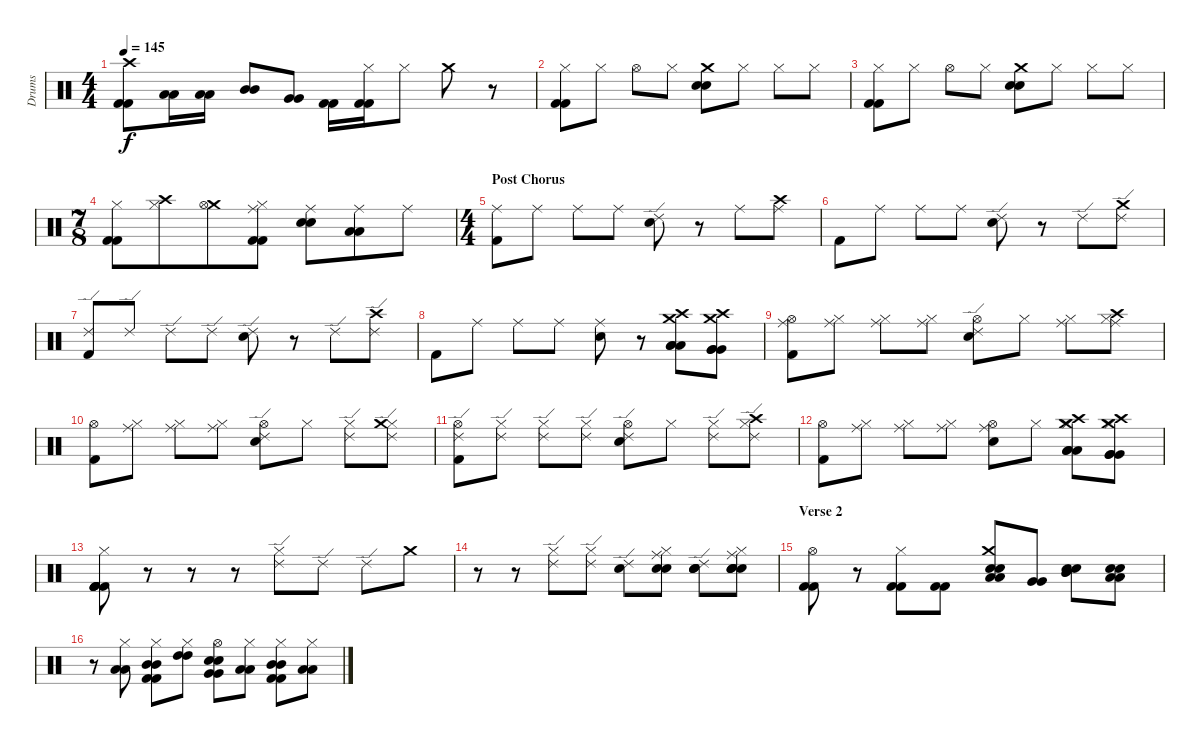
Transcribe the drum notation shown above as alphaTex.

\track ("Drums" "Drums") {instrument percussion}
\staff {score}
\articulation defaults
\ts (4 4)
\tempo 145
\clef neutral
\ks c
("Crash high (hit)" "Kick (hit) 2" "Kick (hit) 2").8{dy f} ("Low Tom (hit)" "Low Tom (hit)").16 ("Low Tom (hit)" "Low Tom (hit)").16 ("Mid Tom (hit)" "Mid Tom (hit)").8 ("Very Low Tom (hit)" "Very Low Tom (hit)").8 ("Kick (hit) 2" "Kick (hit) 2").16 ("Hi-Hat (closed)" "Kick (hit) 2" "Kick (hit) 2").16 "Hi-Hat (closed)".8 "Crash medium (hit)".8 r.8 |
("Hi-Hat (closed)" "Kick (hit) 2" "Kick (hit) 2").8 "Hi-Hat (closed)".8 "Hi-Hat (open)".8 "Hi-Hat (closed)".8 ("Crash medium (hit)" "Snare (hit) 2" "Snare (hit) 2").8 "Hi-Hat (closed)".8 "Hi-Hat (closed)".8 "Hi-Hat (closed)".8 |
("Hi-Hat (closed)" "Kick (hit) 2" "Kick (hit) 2").8 "Hi-Hat (closed)".8 "Hi-Hat (open)".8 "Hi-Hat (closed)".8 ("Crash medium (hit)" "Snare (hit) 2" "Snare (hit) 2").8 "Hi-Hat (closed)".8 "Hi-Hat (closed)".8 "Hi-Hat (closed)".8 |
\ts (7 8)
("Hi-Hat (closed)" "Kick (hit) 2" "Kick (hit) 2").8 ("Crash high (hit)" "Hi-Hat (closed)").8 ("Crash medium (hit)" "Hi-Hat (open)").8 ("Ride (middle)" "Hi-Hat (closed)" "Kick (hit) 2" "Kick (hit) 2").8 ("Ride (middle)" "Snare (hit) 2" "Snare (hit) 2").8 ("Ride (middle)" "Low Tom (hit)" "Low Tom (hit)").8 "Ride (middle)".8 |
\ts (4 4)
\section ("" "Post Chorus")
("Ride (middle)" "Kick (hit) 2").8 "Ride (middle)".8 "Ride (middle)".8 "Ride (middle)".8 ("Ride (edge) 2" "Snare (hit) 2").8 r.8 "Ride (middle)".8 ("Ride (middle)" "Crash high (hit)").8 |
"Kick (hit) 2".8 "Ride (middle)".8 "Ride (middle)".8 "Ride (middle)".8 ("Ride (edge) 2" "Snare (hit) 2").8 r.8 "Ride (edge) 2".8 ("Ride (edge) 2" "Crash medium (hit)").8 |
("Ride (edge) 2" "Kick (hit) 2").8 "Ride (edge) 2".8 "Ride (edge) 2".8 "Ride (edge) 2".8 ("Ride (edge) 2" "Snare (hit) 2").8 r.8 "Ride (edge) 2".8 ("Ride (edge) 2" "Crash high (hit)").8 |
"Kick (hit) 2".8 "Ride (middle)".8 "Ride (middle)".8 "Ride (middle)".8 ("Ride (middle)" "Snare (hit) 2").8 r.8 ("Crash high (hit)" "Low Tom (hit)" "Low Tom (hit)" "Low Tom (hit)" "Crash medium (hit)").8 ("Crash high (hit)" "Very Low Tom (hit)" "Very Low Tom (hit)" "Very Low Tom (hit)" "Crash medium (hit)").8 |
("Hi-Hat (open)" "Ride (middle)" "Kick (hit) 2").8 ("Hi-Hat (closed)" "Ride (middle)").8 ("Hi-Hat (closed)" "Ride (middle)").8 ("Hi-Hat (closed)" "Ride (middle)").8 ("Hi-Hat (open)" "Ride (edge) 2" "Snare (hit) 2").8 "Hi-Hat (closed)".8 ("Hi-Hat (closed)" "Ride (middle)").8 ("Hi-Hat (closed)" "Ride (middle)" "Crash high (hit)").8 |
("Hi-Hat (open)" "Kick (hit) 2").8 ("Hi-Hat (closed)" "Ride (middle)").8 ("Hi-Hat (closed)" "Ride (middle)").8 ("Hi-Hat (closed)" "Ride (middle)").8 ("Hi-Hat (open)" "Ride (edge) 2" "Snare (hit) 2").8 "Hi-Hat (closed)".8 ("Hi-Hat (closed)" "Ride (edge) 2").8 ("Hi-Hat (closed)" "Ride (edge) 2" "Crash medium (hit)").8 |
("Hi-Hat (open)" "Ride (edge) 2" "Kick (hit) 2").8 ("Hi-Hat (closed)" "Ride (edge) 2").8 ("Hi-Hat (closed)" "Ride (edge) 2").8 ("Hi-Hat (closed)" "Ride (edge) 2").8 ("Hi-Hat (open)" "Ride (edge) 2" "Snare (hit) 2").8 "Hi-Hat (closed)".8 ("Hi-Hat (closed)" "Ride (edge) 2").8 ("Hi-Hat (closed)" "Ride (edge) 2" "Crash high (hit)").8 |
("Hi-Hat (open)" "Kick (hit) 2").8 ("Hi-Hat (closed)" "Ride (middle)").8 ("Hi-Hat (closed)" "Ride (middle)").8 ("Hi-Hat (closed)" "Ride (middle)").8 ("Hi-Hat (open)" "Ride (middle)" "Snare (hit) 2").8 "Hi-Hat (closed)".8 ("Hi-Hat (closed)" "Crash high (hit)" "Low Tom (hit)" "Low Tom (hit)" "Low Tom (hit)" "Crash medium (hit)").8 ("Hi-Hat (closed)" "Crash high (hit)" "Very Low Tom (hit)" "Very Low Tom (hit)" "Very Low Tom (hit)" "Crash medium (hit)").8 |
("Hi-Hat (closed)" "Kick (hit) 2" "Kick (hit) 2" "Kick (hit) 2" "Kick (hit) 2" "Kick (hit) 2").8 r.8 r.8 r.8 ("Hi-Hat (closed)" "Ride (edge) 2").8 "Ride (edge) 2".8 "Ride (edge) 2".8 "Crash medium (hit)".8 |
r.8 r.8 ("Hi-Hat (closed)" "Ride (edge) 2").8 ("Hi-Hat (closed)" "Ride (edge) 2").8 ("Ride (edge) 2" "Snare (hit) 2").8 ("Hi-Hat (closed)" "Ride (middle)" "Snare (hit) 2" "Snare (hit) 2").8 ("Snare (hit) 2" "Ride (edge) 2" "Snare (hit) 2" "Snare (hit) 2").8 ("Hi-Hat (closed)" "Snare (hit) 2" "Snare (hit) 2" "Ride (middle)" "Snare (hit) 2" "Snare (hit) 2").8 |
\section ("" "Verse 2")
("Hi-Hat (open)" "Kick (hit) 2" "Kick (hit) 2").8 r.8 ("Hi-Hat (closed)" "Kick (hit) 2" "Kick (hit) 2").8 ("Kick (hit) 2" "Kick (hit) 2").8 ("Crash medium (hit)" "Snare (hit) 2" "Low Tom (hit)" "Low Tom (hit)" "Snare (hit) 2").8 ("Very Low Tom (hit)" "Very Low Tom (hit)").8 ("Snare (hit) 2" "Mid Tom (hit)" "Mid Tom (hit)" "Snare (hit) 2").8 ("Snare (hit) 2" "Low Floor Tom (hit)" "Low Floor Tom (hit)" "Snare (hit) 2").8 |
r.8 ("Hi-Hat (closed)" "Low Tom (hit)" "Low Tom (hit)").8 ("Hi-Hat (closed)" "Kick (hit) 2" "Mid Tom (hit)" "Mid Tom (hit)" "Kick (hit) 2").8 ("Hi-Hat (closed)" "High Tom (hit)" "High Tom (hit)").8 ("Hi-Hat (open)" "Snare (hit) 2" "Very Low Tom (hit)" "Very Low Tom (hit)" "Snare (hit) 2").8 ("Hi-Hat (closed)" "Low Floor Tom (hit)" "Low Floor Tom (hit)").8 ("Hi-Hat (closed)" "Kick (hit) 2" "Mid Tom (hit)" "Mid Tom (hit)" "Kick (hit) 2").8 ("Hi-Hat (closed)" "Low Tom (hit)" "Low Tom (hit)").8
